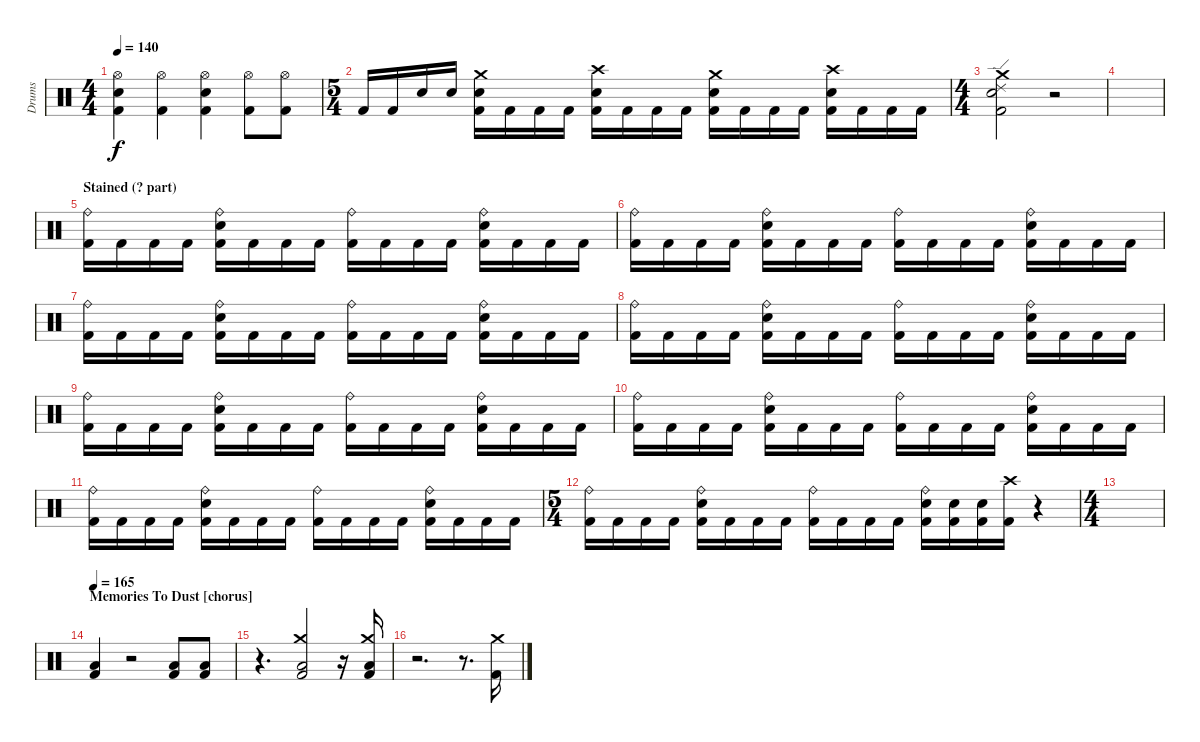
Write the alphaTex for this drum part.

\track ("Drums" "Drums") {instrument percussion}
\staff {score}
\articulation defaults
\ts (4 4)
\tempo 140
\clef neutral
\ks c
("Hi-Hat (open)" "Electric Snare (hit)" "Kick (hit) 2").4{dy f} ("Hi-Hat (open)" "Kick (hit) 2").4 ("Hi-Hat (open)" "Electric Snare (hit)" "Kick (hit) 2").4 ("Hi-Hat (open)" "Kick (hit) 2").8 ("Hi-Hat (open)" "Kick (hit) 2").8 |
\ts (5 4)
"Kick (hit) 2".16 "Kick (hit) 2".16 "Electric Snare (hit)".16 "Electric Snare (hit)".16 ("Crash medium (hit)" "Electric Snare (hit)" "Kick (hit) 2").16 "Kick (hit) 2".16 "Kick (hit) 2".16 "Kick (hit) 2".16 ("Crash high (hit)" "Electric Snare (hit)" "Kick (hit) 2").16 "Kick (hit) 2".16 "Kick (hit) 2".16 "Kick (hit) 2".16 ("Crash medium (hit)" "Electric Snare (hit)" "Kick (hit) 2").16 "Kick (hit) 2".16 "Kick (hit) 2".16 "Kick (hit) 2".16 ("Crash high (hit)" "Electric Snare (hit)" "Kick (hit) 2").16 "Kick (hit) 2".16 "Kick (hit) 2".16 "Kick (hit) 2".16 |
\ts (4 4)
("Ride (edge) 2" "Crash medium (hit)" "Electric Snare (hit)" "Kick (hit) 2").2 r.2 |
|
\section ("" "Stained (? part)")
("Kick (hit) 2" "Ride (bell)").16 "Kick (hit) 2".16 "Kick (hit) 2".16 "Kick (hit) 2".16 ("Kick (hit) 2" "Electric Snare (hit)" "Ride (bell)").16 "Kick (hit) 2".16 "Kick (hit) 2".16 "Kick (hit) 2".16 ("Kick (hit) 2" "Ride (bell)").16 "Kick (hit) 2".16 "Kick (hit) 2".16 "Kick (hit) 2".16 ("Kick (hit) 2" "Electric Snare (hit)" "Ride (bell)").16 "Kick (hit) 2".16 "Kick (hit) 2".16 "Kick (hit) 2".16 |
("Kick (hit) 2" "Ride (bell)").16 "Kick (hit) 2".16 "Kick (hit) 2".16 "Kick (hit) 2".16 ("Kick (hit) 2" "Electric Snare (hit)" "Ride (bell)").16 "Kick (hit) 2".16 "Kick (hit) 2".16 "Kick (hit) 2".16 ("Kick (hit) 2" "Ride (bell)").16 "Kick (hit) 2".16 "Kick (hit) 2".16 "Kick (hit) 2".16 ("Kick (hit) 2" "Electric Snare (hit)" "Ride (bell)").16 "Kick (hit) 2".16 "Kick (hit) 2".16 "Kick (hit) 2".16 |
("Kick (hit) 2" "Ride (bell)").16 "Kick (hit) 2".16 "Kick (hit) 2".16 "Kick (hit) 2".16 ("Kick (hit) 2" "Electric Snare (hit)" "Ride (bell)").16 "Kick (hit) 2".16 "Kick (hit) 2".16 "Kick (hit) 2".16 ("Kick (hit) 2" "Ride (bell)").16 "Kick (hit) 2".16 "Kick (hit) 2".16 "Kick (hit) 2".16 ("Kick (hit) 2" "Electric Snare (hit)" "Ride (bell)").16 "Kick (hit) 2".16 "Kick (hit) 2".16 "Kick (hit) 2".16 |
("Kick (hit) 2" "Ride (bell)").16 "Kick (hit) 2".16 "Kick (hit) 2".16 "Kick (hit) 2".16 ("Kick (hit) 2" "Electric Snare (hit)" "Ride (bell)").16 "Kick (hit) 2".16 "Kick (hit) 2".16 "Kick (hit) 2".16 ("Kick (hit) 2" "Ride (bell)").16 "Kick (hit) 2".16 "Kick (hit) 2".16 "Kick (hit) 2".16 ("Kick (hit) 2" "Electric Snare (hit)" "Ride (bell)").16 "Kick (hit) 2".16 "Kick (hit) 2".16 "Kick (hit) 2".16 |
("Kick (hit) 2" "Ride (bell)").16 "Kick (hit) 2".16 "Kick (hit) 2".16 "Kick (hit) 2".16 ("Kick (hit) 2" "Electric Snare (hit)" "Ride (bell)").16 "Kick (hit) 2".16 "Kick (hit) 2".16 "Kick (hit) 2".16 ("Kick (hit) 2" "Ride (bell)").16 "Kick (hit) 2".16 "Kick (hit) 2".16 "Kick (hit) 2".16 ("Kick (hit) 2" "Electric Snare (hit)" "Ride (bell)").16 "Kick (hit) 2".16 "Kick (hit) 2".16 "Kick (hit) 2".16 |
("Kick (hit) 2" "Ride (bell)").16 "Kick (hit) 2".16 "Kick (hit) 2".16 "Kick (hit) 2".16 ("Kick (hit) 2" "Electric Snare (hit)" "Ride (bell)").16 "Kick (hit) 2".16 "Kick (hit) 2".16 "Kick (hit) 2".16 ("Kick (hit) 2" "Ride (bell)").16 "Kick (hit) 2".16 "Kick (hit) 2".16 "Kick (hit) 2".16 ("Kick (hit) 2" "Electric Snare (hit)" "Ride (bell)").16 "Kick (hit) 2".16 "Kick (hit) 2".16 "Kick (hit) 2".16 |
("Kick (hit) 2" "Ride (bell)").16 "Kick (hit) 2".16 "Kick (hit) 2".16 "Kick (hit) 2".16 ("Kick (hit) 2" "Electric Snare (hit)" "Ride (bell)").16 "Kick (hit) 2".16 "Kick (hit) 2".16 "Kick (hit) 2".16 ("Kick (hit) 2" "Ride (bell)").16 "Kick (hit) 2".16 "Kick (hit) 2".16 "Kick (hit) 2".16 ("Kick (hit) 2" "Electric Snare (hit)" "Ride (bell)").16 "Kick (hit) 2".16 "Kick (hit) 2".16 "Kick (hit) 2".16 |
\ts (5 4)
("Kick (hit) 2" "Ride (bell)").16 "Kick (hit) 2".16 "Kick (hit) 2".16 "Kick (hit) 2".16 ("Kick (hit) 2" "Electric Snare (hit)" "Ride (bell)").16 "Kick (hit) 2".16 "Kick (hit) 2".16 "Kick (hit) 2".16 ("Kick (hit) 2" "Ride (bell)").16 "Kick (hit) 2".16 "Kick (hit) 2".16 "Kick (hit) 2".16 ("Kick (hit) 2" "Electric Snare (hit)" "Ride (bell)").16 ("Kick (hit) 2" "Electric Snare (hit)").16 ("Kick (hit) 2" "Electric Snare (hit)").16 ("Kick (hit) 2" "Crash high (hit)").16 r.4 |
\ts (4 4)
|
\section ("" "Memories To Dust [chorus]")
\tempo 165
("Kick (hit) 2" "Low Tom (hit)").4 r.2 ("Kick (hit) 2" "Low Tom (hit)").8 ("Kick (hit) 2" "Low Tom (hit)").8 |
r.4{d} ("Kick (hit) 2" "Low Tom (hit)" "Crash medium (hit)").2 r.16 ("Kick (hit) 2" "Low Tom (hit)" "Crash medium (hit)").16 |
r.2{d} r.8{d} ("Kick (hit) 2" "Crash medium (hit)").16
